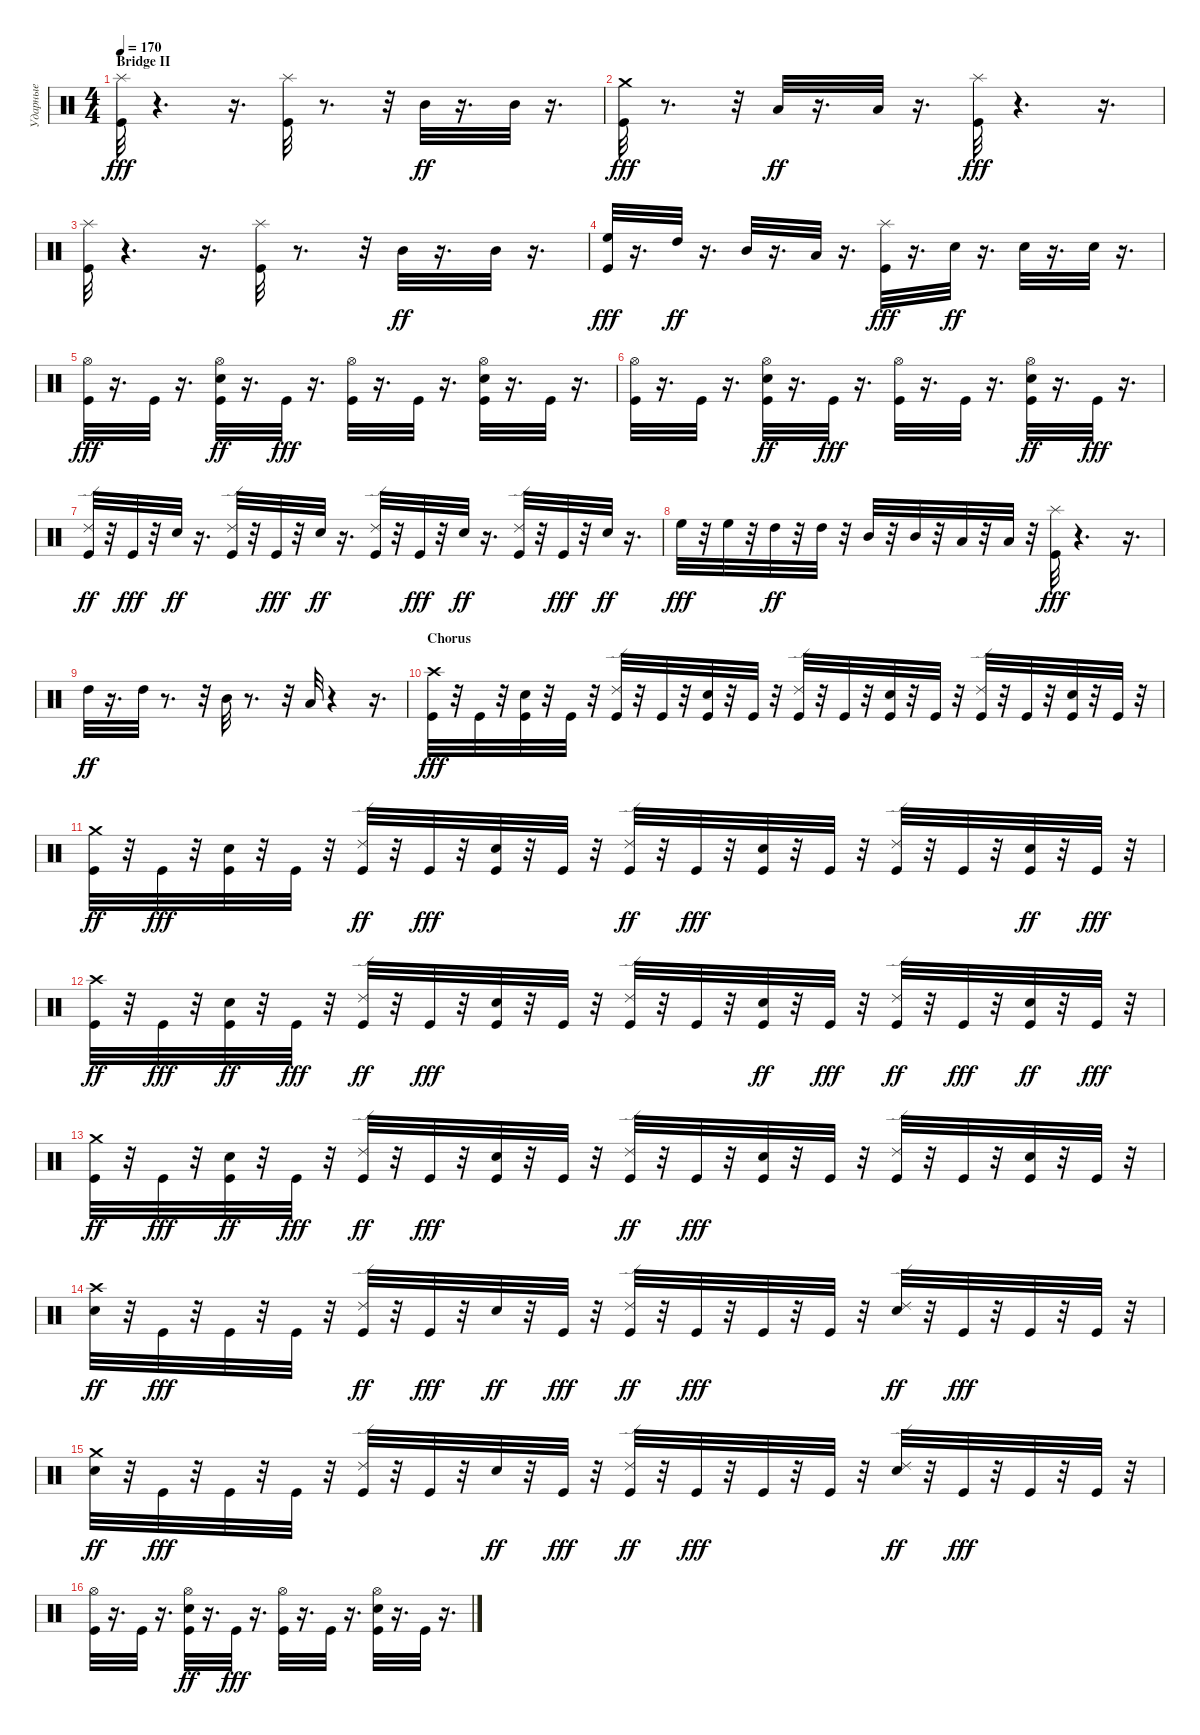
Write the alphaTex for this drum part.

\track ("Ударные" "Ударные") {instrument percussion}
\staff {score}
\articulation defaults
\ts (4 4)
\section ("" "Bridge II")
\tempo 170
\clef neutral
\ks c
("Splash (hit)" "Kick (hit)").32{dy fff} r.4{d} r.16{d} ("Splash (hit)" "Kick (hit)").32 r.8{d} r.32 "Mid Tom (hit)".32{dy ff} r.16{d} "Mid Tom (hit)".32 r.16{d} |
("Crash medium (hit)" "Kick (hit)").32{dy fff} r.8{d} r.32 "Low Tom (hit)".32{dy ff} r.16{d} "Low Tom (hit)".32 r.16{d} ("Splash (hit)" "Kick (hit)").32{dy fff} r.4{d} r.16{d} |
("Splash (hit)" "Kick (hit)").32 r.4{d} r.16{d} ("Splash (hit)" "Kick (hit)").32 r.8{d} r.32 "Mid Tom (hit)".32{dy ff} r.16{d} "Mid Tom (hit)".32 r.16{d} |
("Kick (hit)" "High Floor Tom (hit)").32{dy fff} r.16{d} "High Tom (hit)".32{dy ff} r.16{d} "Mid Tom (hit)".32 r.16{d} "Low Tom (hit)".32 r.16{d} ("Splash (hit)" "Kick (hit)").32{dy fff} r.16{d} "Snare (hit) 2".32{dy ff} r.16{d} "Snare (hit) 2".32 r.16{d} "Snare (hit) 2".32 r.16{d} |
("Hi-Hat (open)" "Kick (hit)").32{dy fff} r.16{d} "Kick (hit)".32 r.16{d} ("Kick (hit)" "Snare (hit) 2" "Hi-Hat (open)").32{dy ff} r.16{d} "Kick (hit)".32{dy fff} r.16{d} ("Hi-Hat (open)" "Kick (hit)").32 r.16{d} "Kick (hit)".32 r.16{d} ("Hi-Hat (open)" "Snare (hit) 2" "Kick (hit)").32 r.16{d} "Kick (hit)".32 r.16{d} |
("Kick (hit)" "Hi-Hat (open)").32 r.16{d} "Kick (hit)".32 r.16{d} ("Kick (hit)" "Hi-Hat (open)" "Snare (hit) 2").32{dy ff} r.16{d} "Kick (hit)".32{dy fff} r.16{d} ("Hi-Hat (open)" "Kick (hit)").32 r.16{d} "Kick (hit)".32 r.16{d} ("Kick (hit)" "Hi-Hat (open)" "Snare (hit) 2").32{dy ff} r.16{d} "Kick (hit)".32{dy fff} r.16{d} |
("Kick (hit)" "Ride (edge) 2").32{dy ff} r.32 "Kick (hit)".32{dy fff} r.32 "Snare (hit) 2".32{dy ff} r.16{d} ("Kick (hit)" "Ride (edge) 2").32 r.32 "Kick (hit)".32{dy fff} r.32 "Snare (hit) 2".32{dy ff} r.16{d} ("Kick (hit)" "Ride (edge) 2").32 r.32 "Kick (hit)".32{dy fff} r.32 "Snare (hit) 2".32{dy ff} r.16{d} ("Kick (hit)" "Ride (edge) 2").32 r.32 "Kick (hit)".32{dy fff} r.32 "Snare (hit) 2".32{dy ff} r.16{d} |
"High Floor Tom (hit)".32{dy fff} r.32 "High Floor Tom (hit)".32 r.32 "High Tom (hit)".32{dy ff} r.32 "High Tom (hit)".32 r.32 "Mid Tom (hit)".32 r.32 "Mid Tom (hit)".32 r.32 "Low Tom (hit)".32 r.32 "Low Tom (hit)".32 r.32 ("Splash (hit)" "Kick (hit)").32{dy fff} r.4{d} r.16{d} |
"High Tom (hit)".32{dy ff} r.16{d} "High Tom (hit)".32 r.8{d} r.32 "Mid Tom (hit)".32 r.8{d} r.32 "Low Tom (hit)".32 r.4 r.16{d} |
\section ("" "Chorus")
("Crash high (hit)" "Kick (hit)").32{dy fff} r.32 "Kick (hit)".32 r.32 ("Snare (hit) 2" "Kick (hit)").32 r.32 "Kick (hit)".32 r.32 ("Ride (edge) 2" "Kick (hit)").32 r.32 "Kick (hit)".32 r.32 ("Snare (hit) 2" "Kick (hit)").32 r.32 "Kick (hit)".32 r.32 ("Ride (edge) 2" "Kick (hit)").32 r.32 "Kick (hit)".32 r.32 ("Snare (hit) 2" "Kick (hit)").32 r.32 "Kick (hit)".32 r.32 ("Ride (edge) 2" "Kick (hit)").32 r.32 "Kick (hit)".32 r.32 ("Snare (hit) 2" "Kick (hit)").32 r.32 "Kick (hit)".32 r.32 |
("Kick (hit)" "Crash medium (hit)").32{dy ff} r.32 "Kick (hit)".32{dy fff} r.32 ("Snare (hit) 2" "Kick (hit)").32 r.32 "Kick (hit)".32 r.32 ("Kick (hit)" "Ride (edge) 2").32{dy ff} r.32 "Kick (hit)".32{dy fff} r.32 ("Snare (hit) 2" "Kick (hit)").32 r.32 "Kick (hit)".32 r.32 ("Kick (hit)" "Ride (edge) 2").32{dy ff} r.32 "Kick (hit)".32{dy fff} r.32 ("Snare (hit) 2" "Kick (hit)").32 r.32 "Kick (hit)".32 r.32 ("Ride (edge) 2" "Kick (hit)").32 r.32 "Kick (hit)".32 r.32 ("Kick (hit)" "Snare (hit) 2").32{dy ff} r.32 "Kick (hit)".32{dy fff} r.32 |
("Kick (hit)" "Crash high (hit)").32{dy ff} r.32 "Kick (hit)".32{dy fff} r.32 ("Kick (hit)" "Snare (hit) 2").32{dy ff} r.32 "Kick (hit)".32{dy fff} r.32 ("Kick (hit)" "Ride (edge) 2").32{dy ff} r.32 "Kick (hit)".32{dy fff} r.32 ("Snare (hit) 2" "Kick (hit)").32 r.32 "Kick (hit)".32 r.32 ("Ride (edge) 2" "Kick (hit)").32 r.32 "Kick (hit)".32 r.32 ("Kick (hit)" "Snare (hit) 2").32{dy ff} r.32 "Kick (hit)".32{dy fff} r.32 ("Kick (hit)" "Ride (edge) 2").32{dy ff} r.32 "Kick (hit)".32{dy fff} r.32 ("Kick (hit)" "Snare (hit) 2").32{dy ff} r.32 "Kick (hit)".32{dy fff} r.32 |
("Kick (hit)" "Crash medium (hit)").32{dy ff} r.32 "Kick (hit)".32{dy fff} r.32 ("Kick (hit)" "Snare (hit) 2").32{dy ff} r.32 "Kick (hit)".32{dy fff} r.32 ("Kick (hit)" "Ride (edge) 2").32{dy ff} r.32 "Kick (hit)".32{dy fff} r.32 ("Snare (hit) 2" "Kick (hit)").32 r.32 "Kick (hit)".32 r.32 ("Kick (hit)" "Ride (edge) 2").32{dy ff} r.32 "Kick (hit)".32{dy fff} r.32 ("Snare (hit) 2" "Kick (hit)").32 r.32 "Kick (hit)".32 r.32 ("Ride (edge) 2" "Kick (hit)").32 r.32 "Kick (hit)".32 r.32 ("Snare (hit) 2" "Kick (hit)").32 r.32 "Kick (hit)".32 r.32 |
("Crash high (hit)" "Snare (hit) 2").32{dy ff} r.32 "Kick (hit)".32{dy fff} r.32 "Kick (hit)".32 r.32 "Kick (hit)".32 r.32 ("Kick (hit)" "Ride (edge) 2").32{dy ff} r.32 "Kick (hit)".32{dy fff} r.32 "Snare (hit) 2".32{dy ff} r.32 "Kick (hit)".32{dy fff} r.32 ("Kick (hit)" "Ride (edge) 2").32{dy ff} r.32 "Kick (hit)".32{dy fff} r.32 "Kick (hit)".32 r.32 "Kick (hit)".32 r.32 ("Ride (edge) 2" "Snare (hit) 2").32{dy ff} r.32 "Kick (hit)".32{dy fff} r.32 "Kick (hit)".32 r.32 "Kick (hit)".32 r.32 |
("Snare (hit) 2" "Crash medium (hit)").32{dy ff} r.32 "Kick (hit)".32{dy fff} r.32 "Kick (hit)".32 r.32 "Kick (hit)".32 r.32 ("Ride (edge) 2" "Kick (hit)").32 r.32 "Kick (hit)".32 r.32 "Snare (hit) 2".32{dy ff} r.32 "Kick (hit)".32{dy fff} r.32 ("Kick (hit)" "Ride (edge) 2").32{dy ff} r.32 "Kick (hit)".32{dy fff} r.32 "Kick (hit)".32 r.32 "Kick (hit)".32 r.32 ("Ride (edge) 2" "Snare (hit) 2").32{dy ff} r.32 "Kick (hit)".32{dy fff} r.32 "Kick (hit)".32 r.32 "Kick (hit)".32 r.32 |
("Kick (hit)" "Hi-Hat (open)").32 r.16{d} "Kick (hit)".32 r.16{d} ("Kick (hit)" "Hi-Hat (open)" "Snare (hit) 2").32{dy ff} r.16{d} "Kick (hit)".32{dy fff} r.16{d} ("Kick (hit)" "Hi-Hat (open)").32 r.16{d} "Kick (hit)".32 r.16{d} ("Snare (hit) 2" "Kick (hit)" "Hi-Hat (open)").32 r.16{d} "Kick (hit)".32 r.16{d}
